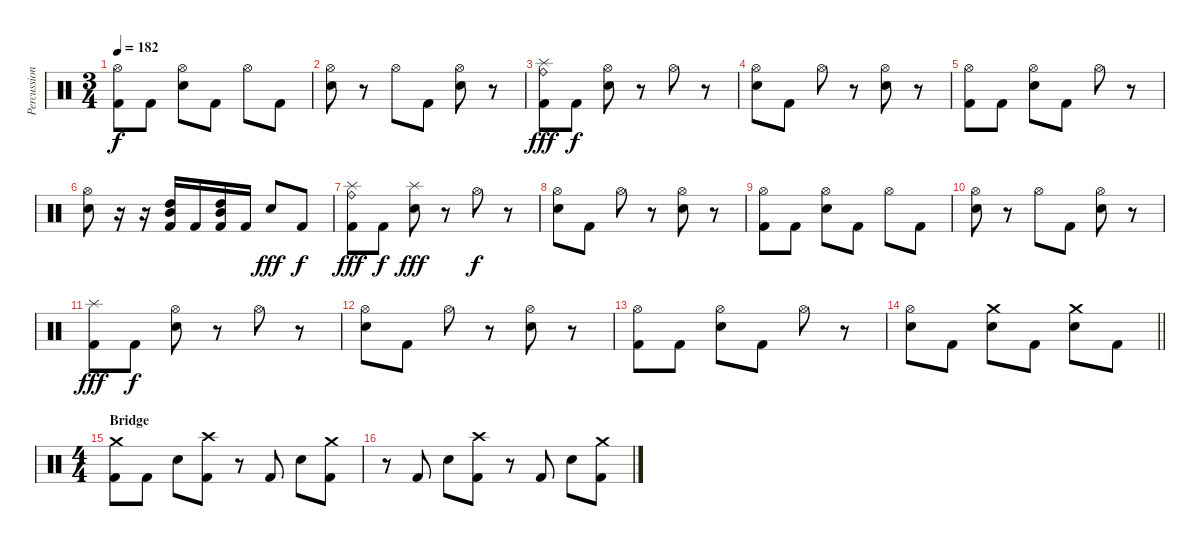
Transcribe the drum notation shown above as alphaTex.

\track ("Percussion" "Percussion") {instrument percussion}
\staff {score}
\articulation defaults
\ts (3 4)
\tempo 182
\clef neutral
\ks c
("Hi-Hat (open)" "Kick (hit) 2").8{dy f} "Kick (hit) 2".8 ("Hi-Hat (open)" "Electric Snare (hit)").8 "Kick (hit) 2".8 "Hi-Hat (open)".8 "Kick (hit) 2".8 |
("Hi-Hat (open)" "Electric Snare (hit)").8 r.8 "Hi-Hat (open)".8 "Kick (hit) 2".8 ("Hi-Hat (open)" "Electric Snare (hit)").8 r.8 |
("Splash (hit)" "Ride (bell)" "Kick (hit) 2").8{dy fff} "Kick (hit) 2".8{dy f} ("Hi-Hat (open)" "Electric Snare (hit)").8 r.8 "Hi-Hat (open)".8 r.8 |
("Hi-Hat (open)" "Electric Snare (hit)").8 "Kick (hit) 2".8 "Hi-Hat (open)".8 r.8 ("Hi-Hat (open)" "Electric Snare (hit)").8 r.8 |
("Hi-Hat (open)" "Kick (hit) 2").8 "Kick (hit) 2".8 ("Hi-Hat (open)" "Electric Snare (hit)").8 "Kick (hit) 2".8 "Hi-Hat (open)".8 r.8 |
("Hi-Hat (open)" "Electric Snare (hit)").8 r.16 r.16 ("Mid Tom (hit)" "High Tom (hit)" "Kick (hit) 2").16 "Kick (hit) 2".16 ("High Tom (hit)" "Mid Tom (hit)" "Kick (hit) 2").16 "Kick (hit) 2".16 "Electric Snare (hit)".8{dy fff} "Kick (hit) 2".8{dy f} |
("Splash (hit)" "Ride (bell)" "Kick (hit) 2").8{dy fff} "Kick (hit) 2".8{dy f} ("Splash (hit)" "Electric Snare (hit)").8{dy fff} r.8 "Hi-Hat (open)".8{dy f} r.8 |
("Hi-Hat (open)" "Electric Snare (hit)").8 "Kick (hit) 2".8 "Hi-Hat (open)".8 r.8 ("Hi-Hat (open)" "Electric Snare (hit)").8 r.8 |
("Hi-Hat (open)" "Kick (hit) 2").8 "Kick (hit) 2".8 ("Hi-Hat (open)" "Electric Snare (hit)").8 "Kick (hit) 2".8 "Hi-Hat (open)".8 "Kick (hit) 2".8 |
("Hi-Hat (open)" "Electric Snare (hit)").8 r.8 "Hi-Hat (open)".8 "Kick (hit) 2".8 ("Hi-Hat (open)" "Electric Snare (hit)").8 r.8 |
("Splash (hit)" "Kick (hit) 2").8{dy fff} "Kick (hit) 2".8{dy f} ("Hi-Hat (open)" "Electric Snare (hit)").8 r.8 "Hi-Hat (open)".8 r.8 |
("Hi-Hat (open)" "Electric Snare (hit)").8 "Kick (hit) 2".8 "Hi-Hat (open)".8 r.8 ("Hi-Hat (open)" "Electric Snare (hit)").8 r.8 |
("Hi-Hat (open)" "Kick (hit) 2").8 "Kick (hit) 2".8 ("Hi-Hat (open)" "Electric Snare (hit)").8 "Kick (hit) 2".8 "Hi-Hat (open)".8 r.8 |
\barLineRight lightlight
("Hi-Hat (open)" "Electric Snare (hit)").8 "Kick (hit) 2".8 ("Crash medium (hit)" "Electric Snare (hit)").8 "Kick (hit) 2".8 ("Crash medium (hit)" "Electric Snare (hit)").8 "Kick (hit) 2".8 |
\ts (4 4)
\section ("" "Bridge")
("Crash medium (hit)" "Kick (hit) 2").8 "Kick (hit) 2".8 "Electric Snare (hit)".8 ("Crash high (hit)" "Kick (hit) 2").8 r.8 "Kick (hit) 2".8 "Electric Snare (hit)".8 ("Crash medium (hit)" "Kick (hit) 2").8 |
r.8 "Kick (hit) 2".8 "Electric Snare (hit)".8 ("Crash high (hit)" "Kick (hit) 2").8 r.8 "Kick (hit) 2".8 "Electric Snare (hit)".8 ("Crash medium (hit)" "Kick (hit) 2").8
